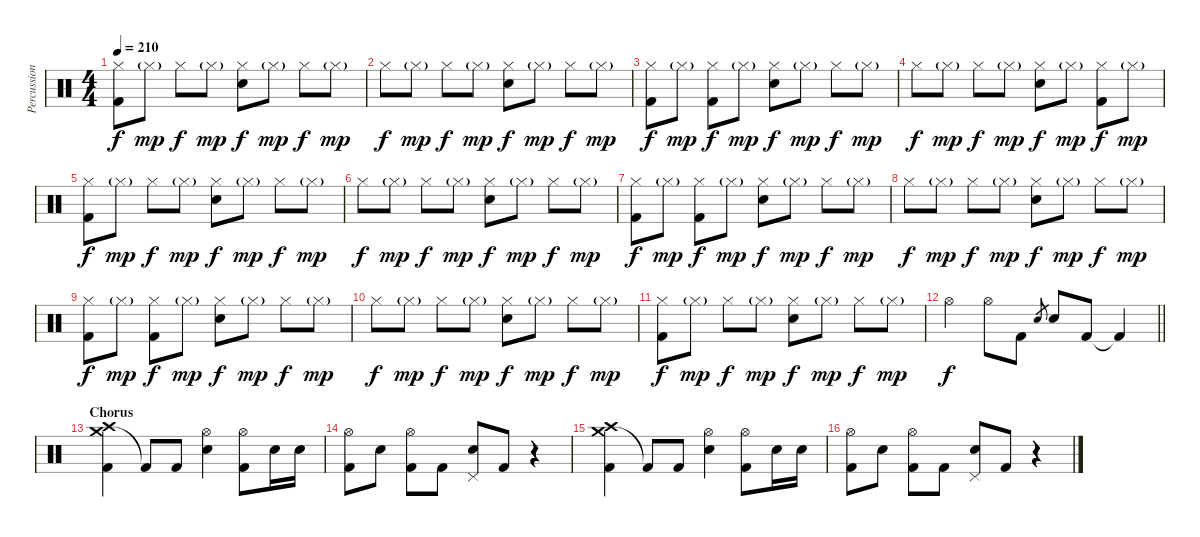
\track ("Percussion" "Percussion") {instrument percussion}
\staff {score}
\articulation defaults
\ts (4 4)
\tempo 210
\clef neutral
\ks c
("Hi-Hat (closed)" "Kick (hit) 2").8{dy f} "Hi-Hat (closed)"{g}.8{dy mp} "Hi-Hat (closed)".8{dy f} "Hi-Hat (closed)"{g}.8{dy mp} ("Hi-Hat (closed)" "Electric Snare (hit)").8{dy f} "Hi-Hat (closed)"{g}.8{dy mp} "Hi-Hat (closed)".8{dy f} "Hi-Hat (closed)"{g}.8{dy mp} |
"Hi-Hat (closed)".8{dy f} "Hi-Hat (closed)"{g}.8{dy mp} "Hi-Hat (closed)".8{dy f} "Hi-Hat (closed)"{g}.8{dy mp} ("Hi-Hat (closed)" "Electric Snare (hit)").8{dy f} "Hi-Hat (closed)"{g}.8{dy mp} "Hi-Hat (closed)".8{dy f} "Hi-Hat (closed)"{g}.8{dy mp} |
("Hi-Hat (closed)" "Kick (hit) 2").8{dy f} "Hi-Hat (closed)"{g}.8{dy mp} ("Hi-Hat (closed)" "Kick (hit) 2").8{dy f} "Hi-Hat (closed)"{g}.8{dy mp} ("Hi-Hat (closed)" "Electric Snare (hit)").8{dy f} "Hi-Hat (closed)"{g}.8{dy mp} "Hi-Hat (closed)".8{dy f} "Hi-Hat (closed)"{g}.8{dy mp} |
"Hi-Hat (closed)".8{dy f} "Hi-Hat (closed)"{g}.8{dy mp} "Hi-Hat (closed)".8{dy f} "Hi-Hat (closed)"{g}.8{dy mp} ("Hi-Hat (closed)" "Electric Snare (hit)").8{dy f} "Hi-Hat (closed)"{g}.8{dy mp} ("Hi-Hat (closed)" "Kick (hit) 2").8{dy f} "Hi-Hat (closed)"{g}.8{dy mp} |
("Hi-Hat (closed)" "Kick (hit) 2").8{dy f} "Hi-Hat (closed)"{g}.8{dy mp} "Hi-Hat (closed)".8{dy f} "Hi-Hat (closed)"{g}.8{dy mp} ("Hi-Hat (closed)" "Electric Snare (hit)").8{dy f} "Hi-Hat (closed)"{g}.8{dy mp} "Hi-Hat (closed)".8{dy f} "Hi-Hat (closed)"{g}.8{dy mp} |
"Hi-Hat (closed)".8{dy f} "Hi-Hat (closed)"{g}.8{dy mp} "Hi-Hat (closed)".8{dy f} "Hi-Hat (closed)"{g}.8{dy mp} ("Hi-Hat (closed)" "Electric Snare (hit)").8{dy f} "Hi-Hat (closed)"{g}.8{dy mp} "Hi-Hat (closed)".8{dy f} "Hi-Hat (closed)"{g}.8{dy mp} |
("Hi-Hat (closed)" "Kick (hit) 2").8{dy f} "Hi-Hat (closed)"{g}.8{dy mp} ("Hi-Hat (closed)" "Kick (hit) 2").8{dy f} "Hi-Hat (closed)"{g}.8{dy mp} ("Hi-Hat (closed)" "Electric Snare (hit)").8{dy f} "Hi-Hat (closed)"{g}.8{dy mp} "Hi-Hat (closed)".8{dy f} "Hi-Hat (closed)"{g}.8{dy mp} |
"Hi-Hat (closed)".8{dy f} "Hi-Hat (closed)"{g}.8{dy mp} "Hi-Hat (closed)".8{dy f} "Hi-Hat (closed)"{g}.8{dy mp} ("Hi-Hat (closed)" "Electric Snare (hit)").8{dy f} "Hi-Hat (closed)"{g}.8{dy mp} "Hi-Hat (closed)".8{dy f} "Hi-Hat (closed)"{g}.8{dy mp} |
("Hi-Hat (closed)" "Kick (hit) 2").8{dy f} "Hi-Hat (closed)"{g}.8{dy mp} ("Hi-Hat (closed)" "Kick (hit) 2").8{dy f} "Hi-Hat (closed)"{g}.8{dy mp} ("Hi-Hat (closed)" "Electric Snare (hit)").8{dy f} "Hi-Hat (closed)"{g}.8{dy mp} "Hi-Hat (closed)".8{dy f} "Hi-Hat (closed)"{g}.8{dy mp} |
"Hi-Hat (closed)".8{dy f} "Hi-Hat (closed)"{g}.8{dy mp} "Hi-Hat (closed)".8{dy f} "Hi-Hat (closed)"{g}.8{dy mp} ("Hi-Hat (closed)" "Electric Snare (hit)").8{dy f} "Hi-Hat (closed)"{g}.8{dy mp} "Hi-Hat (closed)".8{dy f} "Hi-Hat (closed)"{g}.8{dy mp} |
("Hi-Hat (closed)" "Kick (hit) 2").8{dy f} "Hi-Hat (closed)"{g}.8{dy mp} "Hi-Hat (closed)".8{dy f} "Hi-Hat (closed)"{g}.8{dy mp} ("Hi-Hat (closed)" "Electric Snare (hit)").8{dy f} "Hi-Hat (closed)"{g}.8{dy mp} "Hi-Hat (closed)".8{dy f} "Hi-Hat (closed)"{g}.8{dy mp} |
\barLineRight lightlight "Hi-Hat (open)".4{dy f} "Hi-Hat (open)".8 "Kick (hit) 2".8 "Electric Snare (hit)".8{gr} "Electric Snare (hit)".8 "Kick (hit) 2".8 "Kick (hit) 2"{t}.4
|
\section ("" "Chorus")
("Crash medium (hit)" "Crash high (hit)" "Kick (hit) 2").4 "Kick (hit) 2"{t}.8 "Kick (hit) 2".8 ("Hi-Hat (open)" "Electric Snare (hit)").4 ("Hi-Hat (open)" "Kick (hit) 2").8 "Electric Snare (hit)".16 "Electric Snare (hit)".16 |
("Hi-Hat (open)" "Kick (hit) 2").8 "Electric Snare (hit)".8 ("Hi-Hat (open)" "Kick (hit) 2").8 "Kick (hit) 2".8 ("Pedal Hi-Hat (hit)" "Electric Snare (hit)").8 "Kick (hit) 2".8 r.4 |
("Crash medium (hit)" "Crash high (hit)" "Kick (hit) 2").4 "Kick (hit) 2"{t}.8 "Kick (hit) 2".8 ("Hi-Hat (open)" "Electric Snare (hit)").4 ("Hi-Hat (open)" "Kick (hit) 2").8 "Electric Snare (hit)".16 "Electric Snare (hit)".16 |
("Hi-Hat (open)" "Kick (hit) 2").8 "Electric Snare (hit)".8 ("Hi-Hat (open)" "Kick (hit) 2").8 "Kick (hit) 2".8 ("Pedal Hi-Hat (hit)" "Electric Snare (hit)").8 "Kick (hit) 2".8 r.4
